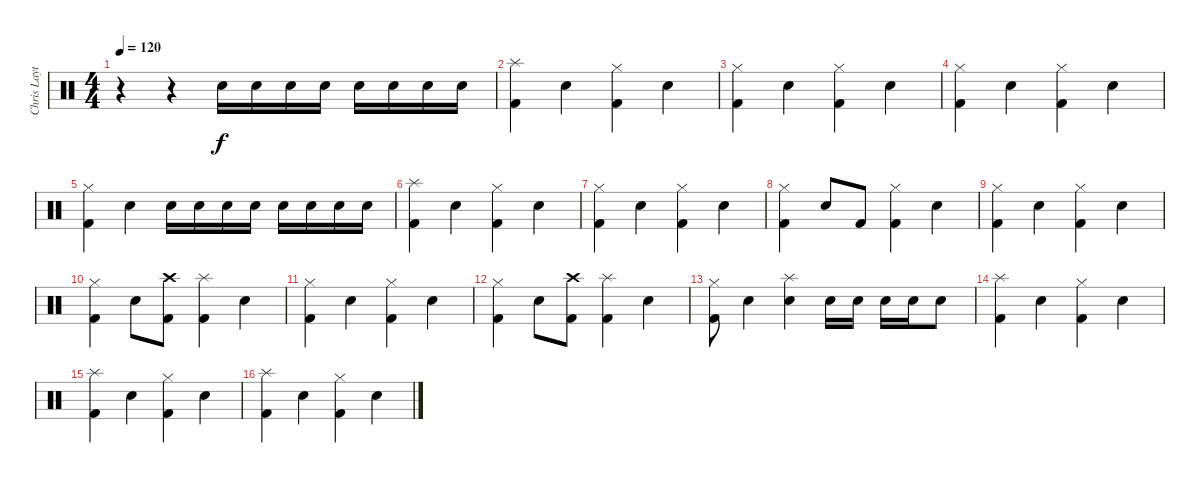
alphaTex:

\track ("Chris Layton" "Chris Layt") {instrument percussion}
\staff {score}
\articulation defaults
\ts (4 4)
\tempo 120
\clef neutral
\ks c
r.4{dy f} r.4 "Snare (hit) 2".16 "Snare (hit) 2".16 "Snare (hit) 2".16 "Snare (hit) 2".16 "Snare (hit) 2".16 "Snare (hit) 2".16 "Snare (hit) 2".16 "Snare (hit) 2".16 |
("Kick (hit) 2" "Splash (hit)").4 "Snare (hit) 2".4 ("Kick (hit) 2" "Hi-Hat (closed)").4 "Snare (hit) 2".4 |
("Kick (hit) 2" "Hi-Hat (closed)").4 "Snare (hit) 2".4 ("Kick (hit) 2" "Hi-Hat (closed)").4 "Snare (hit) 2".4 |
("Kick (hit) 2" "Hi-Hat (closed)").4 "Snare (hit) 2".4 ("Kick (hit) 2" "Hi-Hat (closed)").4 "Snare (hit) 2".4 |
("Kick (hit) 2" "Hi-Hat (closed)").4 "Snare (hit) 2".4 "Snare (hit) 2".16 "Snare (hit) 2".16 "Snare (hit) 2".16 "Snare (hit) 2".16 "Snare (hit) 2".16 "Snare (hit) 2".16 "Snare (hit) 2".16 "Snare (hit) 2".16 |
("Kick (hit) 2" "Splash (hit)").4 "Snare (hit) 2".4 ("Kick (hit) 2" "Hi-Hat (closed)").4 "Snare (hit) 2".4 |
("Kick (hit) 2" "Hi-Hat (closed)").4 "Snare (hit) 2".4 ("Kick (hit) 2" "Hi-Hat (closed)").4 "Snare (hit) 2".4 |
("Kick (hit) 2" "Hi-Hat (closed)").4 "Snare (hit) 2".8 "Kick (hit) 2".8 ("Kick (hit) 2" "Hi-Hat (closed)").4 "Snare (hit) 2".4 |
("Kick (hit) 2" "Hi-Hat (closed)").4 "Snare (hit) 2".4 ("Kick (hit) 2" "Hi-Hat (closed)").4 "Snare (hit) 2".4 |
("Kick (hit) 2" "Hi-Hat (closed)").4 "Snare (hit) 2".8 ("Kick (hit) 2" "Crash high (hit)").8 ("Kick (hit) 2" "Splash (hit)").4 "Snare (hit) 2".4 |
("Kick (hit) 2" "Hi-Hat (closed)").4 "Snare (hit) 2".4 ("Kick (hit) 2" "Hi-Hat (closed)").4 "Snare (hit) 2".4 |
("Kick (hit) 2" "Hi-Hat (closed)").4 "Snare (hit) 2".8 ("Kick (hit) 2" "Crash high (hit)").8 ("Kick (hit) 2" "Splash (hit)").4 "Snare (hit) 2".4 |
("Kick (hit) 2" "Hi-Hat (closed)").8 "Snare (hit) 2".4 ("Snare (hit) 2" "Splash (hit)").4 "Snare (hit) 2".16 "Snare (hit) 2".16 "Snare (hit) 2".16 "Snare (hit) 2".16 "Snare (hit) 2".8 |
("Kick (hit) 2" "Splash (hit)").4 "Snare (hit) 2".4 ("Kick (hit) 2" "Hi-Hat (closed)").4 "Snare (hit) 2".4 |
("Kick (hit) 2" "Splash (hit)").4 "Snare (hit) 2".4 ("Kick (hit) 2" "Hi-Hat (closed)").4 "Snare (hit) 2".4 |
("Kick (hit) 2" "Splash (hit)").4 "Snare (hit) 2".4 ("Kick (hit) 2" "Hi-Hat (closed)").4 "Snare (hit) 2".4
